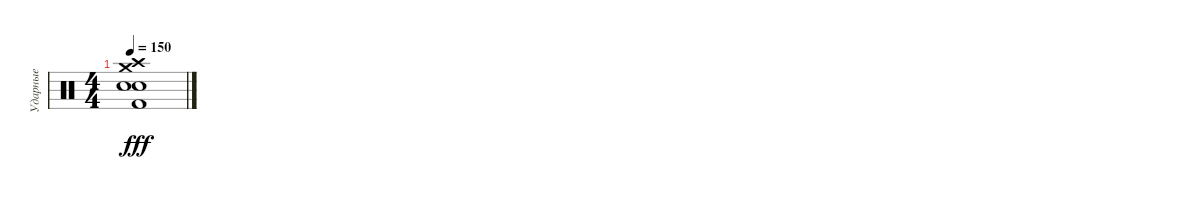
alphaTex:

\track ("Ударные" "Ударные") {instrument percussion}
\staff {score}
\articulation defaults
\ts (4 4)
\tempo 150
\clef neutral
\ks c
("Crash high (hit)" "Crash medium (hit)" "Snare (hit) 2" "Snare (hit) 2" "Kick (hit) 2").1{dy fff}
